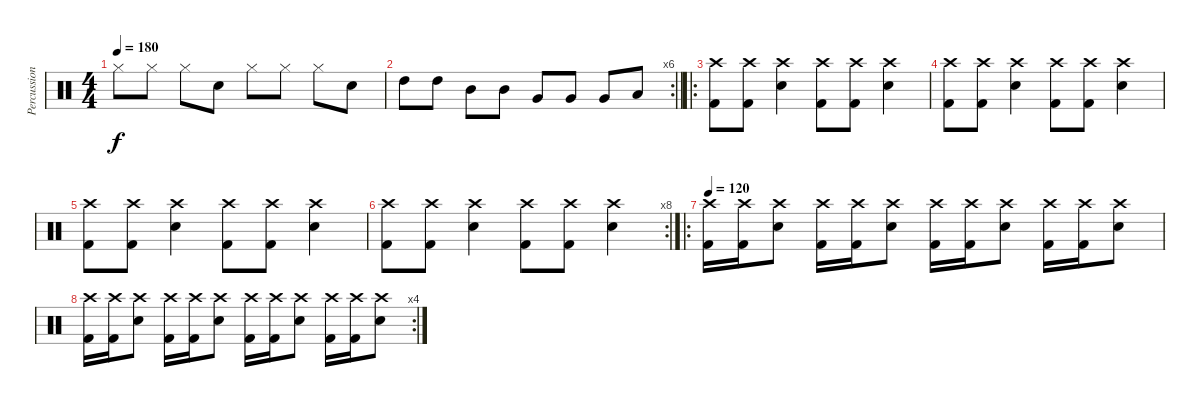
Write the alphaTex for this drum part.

\track ("Percussion" "Percussion") {instrument percussion}
\staff {score}
\articulation defaults
\ts (4 4)
\tempo 180
\clef neutral
\ks c "Hi-Hat (closed)".8{dy f} "Hi-Hat (closed)".8 "Hi-Hat (closed)".8 "Snare (hit) 2".8 "Hi-Hat (closed)".8 "Hi-Hat (closed)".8 "Hi-Hat (closed)".8 "Snare (hit) 2".8
|
\rc 6
\barLineRight lightlight "High Tom (hit)".8 "High Tom (hit)".8 "Mid Tom (hit)".8 "Mid Tom (hit)".8 "Very Low Tom (hit)".8 "Very Low Tom (hit)".8 "Very Low Tom (hit)".8 "Low Floor Tom (hit)".8
|
\ro
("Crash high (hit)" "Kick (hit) 2").8 ("Crash high (hit)" "Kick (hit) 2").8 ("Crash high (hit)" "Snare (hit) 2").4 ("Crash high (hit)" "Kick (hit) 2").8 ("Crash high (hit)" "Kick (hit) 2").8 ("Crash high (hit)" "Snare (hit) 2").4 |
("Crash high (hit)" "Kick (hit) 2").8 ("Crash high (hit)" "Kick (hit) 2").8 ("Crash high (hit)" "Snare (hit) 2").4 ("Crash high (hit)" "Kick (hit) 2").8 ("Crash high (hit)" "Kick (hit) 2").8 ("Crash high (hit)" "Snare (hit) 2").4 |
("Crash high (hit)" "Kick (hit) 2").8 ("Crash high (hit)" "Kick (hit) 2").8 ("Crash high (hit)" "Snare (hit) 2").4 ("Crash high (hit)" "Kick (hit) 2").8 ("Crash high (hit)" "Kick (hit) 2").8 ("Crash high (hit)" "Snare (hit) 2").4 |
\rc 8
("Crash high (hit)" "Kick (hit) 2").8 ("Crash high (hit)" "Kick (hit) 2").8 ("Crash high (hit)" "Snare (hit) 2").4 ("Crash high (hit)" "Kick (hit) 2").8 ("Crash high (hit)" "Kick (hit) 2").8 ("Crash high (hit)" "Snare (hit) 2").4 |
\ro
\tempo 120
("Crash high (hit)" "Kick (hit) 2").16 ("Crash high (hit)" "Kick (hit) 2").16 ("Crash high (hit)" "Snare (hit) 2").8 ("Crash high (hit)" "Kick (hit) 2").16 ("Crash high (hit)" "Kick (hit) 2").16 ("Crash high (hit)" "Snare (hit) 2").8 ("Crash high (hit)" "Kick (hit) 2").16 ("Crash high (hit)" "Kick (hit) 2").16 ("Crash high (hit)" "Snare (hit) 2").8 ("Crash high (hit)" "Kick (hit) 2").16 ("Crash high (hit)" "Kick (hit) 2").16 ("Crash high (hit)" "Snare (hit) 2").8 |
\rc 4
("Crash high (hit)" "Kick (hit) 2").16 ("Crash high (hit)" "Kick (hit) 2").16 ("Crash high (hit)" "Snare (hit) 2").8 ("Crash high (hit)" "Kick (hit) 2").16 ("Crash high (hit)" "Kick (hit) 2").16 ("Crash high (hit)" "Snare (hit) 2").8 ("Crash high (hit)" "Kick (hit) 2").16 ("Crash high (hit)" "Kick (hit) 2").16 ("Crash high (hit)" "Snare (hit) 2").8 ("Crash high (hit)" "Kick (hit) 2").16 ("Crash high (hit)" "Kick (hit) 2").16 ("Crash high (hit)" "Snare (hit) 2").8
